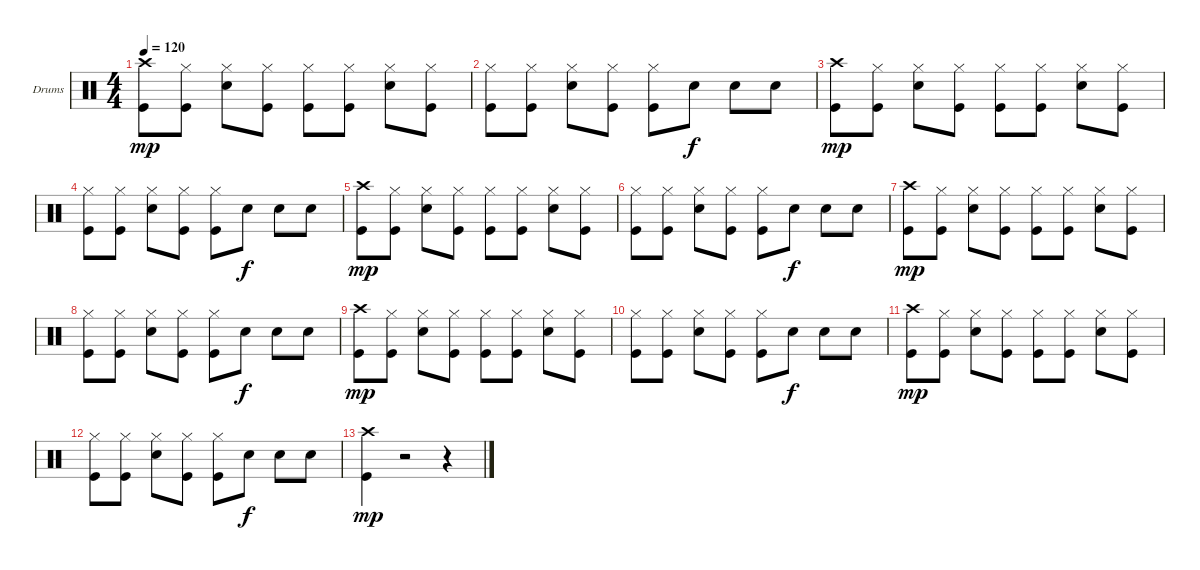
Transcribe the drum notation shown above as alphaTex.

\defaultSystemsLayout 4
\bracketExtendMode groupsimilarinstruments
\firstSystemTrackNameOrientation horizontal
\otherSystemsTrackNameOrientation horizontal
\track ("Drumkit" "Drums") {instrument percussion}
\staff {score}
\articulation defaults
\ts (4 4)
\tempo 120
\clef neutral
\ks c
("Kick (hit)" "Crash high (hit)").8{dy mp} ("Kick (hit)" "Hi-Hat (closed)").8 ("Snare (hit) 2" "Hi-Hat (closed)").8 ("Kick (hit)" "Hi-Hat (closed)").8 ("Kick (hit)" "Hi-Hat (closed)").8 ("Kick (hit)" "Hi-Hat (closed)").8 ("Snare (hit) 2" "Hi-Hat (closed)").8 ("Kick (hit)" "Hi-Hat (closed)").8 |
("Kick (hit)" "Hi-Hat (closed)").8 ("Kick (hit)" "Hi-Hat (closed)").8 ("Snare (hit) 2" "Hi-Hat (closed)").8 ("Kick (hit)" "Hi-Hat (closed)").8 ("Kick (hit)" "Hi-Hat (closed)").8 "Snare (hit) 2".8{dy f} "Snare (hit) 2".8 "Snare (hit) 2".8 |
("Kick (hit)" "Crash high (hit)").8{dy mp} ("Kick (hit)" "Hi-Hat (closed)").8 ("Snare (hit) 2" "Hi-Hat (closed)").8 ("Kick (hit)" "Hi-Hat (closed)").8 ("Kick (hit)" "Hi-Hat (closed)").8 ("Kick (hit)" "Hi-Hat (closed)").8 ("Snare (hit) 2" "Hi-Hat (closed)").8 ("Kick (hit)" "Hi-Hat (closed)").8 |
("Kick (hit)" "Hi-Hat (closed)").8 ("Kick (hit)" "Hi-Hat (closed)").8 ("Snare (hit) 2" "Hi-Hat (closed)").8 ("Kick (hit)" "Hi-Hat (closed)").8 ("Kick (hit)" "Hi-Hat (closed)").8 "Snare (hit) 2".8{dy f} "Snare (hit) 2".8 "Snare (hit) 2".8 |
("Kick (hit)" "Crash high (hit)").8{dy mp} ("Kick (hit)" "Hi-Hat (closed)").8 ("Snare (hit) 2" "Hi-Hat (closed)").8 ("Kick (hit)" "Hi-Hat (closed)").8 ("Kick (hit)" "Hi-Hat (closed)").8 ("Kick (hit)" "Hi-Hat (closed)").8 ("Snare (hit) 2" "Hi-Hat (closed)").8 ("Kick (hit)" "Hi-Hat (closed)").8 |
("Kick (hit)" "Hi-Hat (closed)").8 ("Kick (hit)" "Hi-Hat (closed)").8 ("Snare (hit) 2" "Hi-Hat (closed)").8 ("Kick (hit)" "Hi-Hat (closed)").8 ("Kick (hit)" "Hi-Hat (closed)").8 "Snare (hit) 2".8{dy f} "Snare (hit) 2".8 "Snare (hit) 2".8 |
("Kick (hit)" "Crash high (hit)").8{dy mp} ("Kick (hit)" "Hi-Hat (closed)").8 ("Snare (hit) 2" "Hi-Hat (closed)").8 ("Kick (hit)" "Hi-Hat (closed)").8 ("Kick (hit)" "Hi-Hat (closed)").8 ("Kick (hit)" "Hi-Hat (closed)").8 ("Snare (hit) 2" "Hi-Hat (closed)").8 ("Kick (hit)" "Hi-Hat (closed)").8 |
("Kick (hit)" "Hi-Hat (closed)").8 ("Kick (hit)" "Hi-Hat (closed)").8 ("Snare (hit) 2" "Hi-Hat (closed)").8 ("Kick (hit)" "Hi-Hat (closed)").8 ("Kick (hit)" "Hi-Hat (closed)").8 "Snare (hit) 2".8{dy f} "Snare (hit) 2".8 "Snare (hit) 2".8 |
("Kick (hit)" "Crash high (hit)").8{dy mp} ("Kick (hit)" "Hi-Hat (closed)").8 ("Snare (hit) 2" "Hi-Hat (closed)").8 ("Kick (hit)" "Hi-Hat (closed)").8 ("Kick (hit)" "Hi-Hat (closed)").8 ("Kick (hit)" "Hi-Hat (closed)").8 ("Snare (hit) 2" "Hi-Hat (closed)").8 ("Kick (hit)" "Hi-Hat (closed)").8 |
("Kick (hit)" "Hi-Hat (closed)").8 ("Kick (hit)" "Hi-Hat (closed)").8 ("Snare (hit) 2" "Hi-Hat (closed)").8 ("Kick (hit)" "Hi-Hat (closed)").8 ("Kick (hit)" "Hi-Hat (closed)").8 "Snare (hit) 2".8{dy f} "Snare (hit) 2".8 "Snare (hit) 2".8 |
("Kick (hit)" "Crash high (hit)").8{dy mp} ("Kick (hit)" "Hi-Hat (closed)").8 ("Snare (hit) 2" "Hi-Hat (closed)").8 ("Kick (hit)" "Hi-Hat (closed)").8 ("Kick (hit)" "Hi-Hat (closed)").8 ("Kick (hit)" "Hi-Hat (closed)").8 ("Snare (hit) 2" "Hi-Hat (closed)").8 ("Kick (hit)" "Hi-Hat (closed)").8 |
("Kick (hit)" "Hi-Hat (closed)").8 ("Kick (hit)" "Hi-Hat (closed)").8 ("Snare (hit) 2" "Hi-Hat (closed)").8 ("Kick (hit)" "Hi-Hat (closed)").8 ("Kick (hit)" "Hi-Hat (closed)").8 "Snare (hit) 2".8{dy f} "Snare (hit) 2".8 "Snare (hit) 2".8 |
("Kick (hit)" "Crash high (hit)").4{dy mp} r.2 r.4
